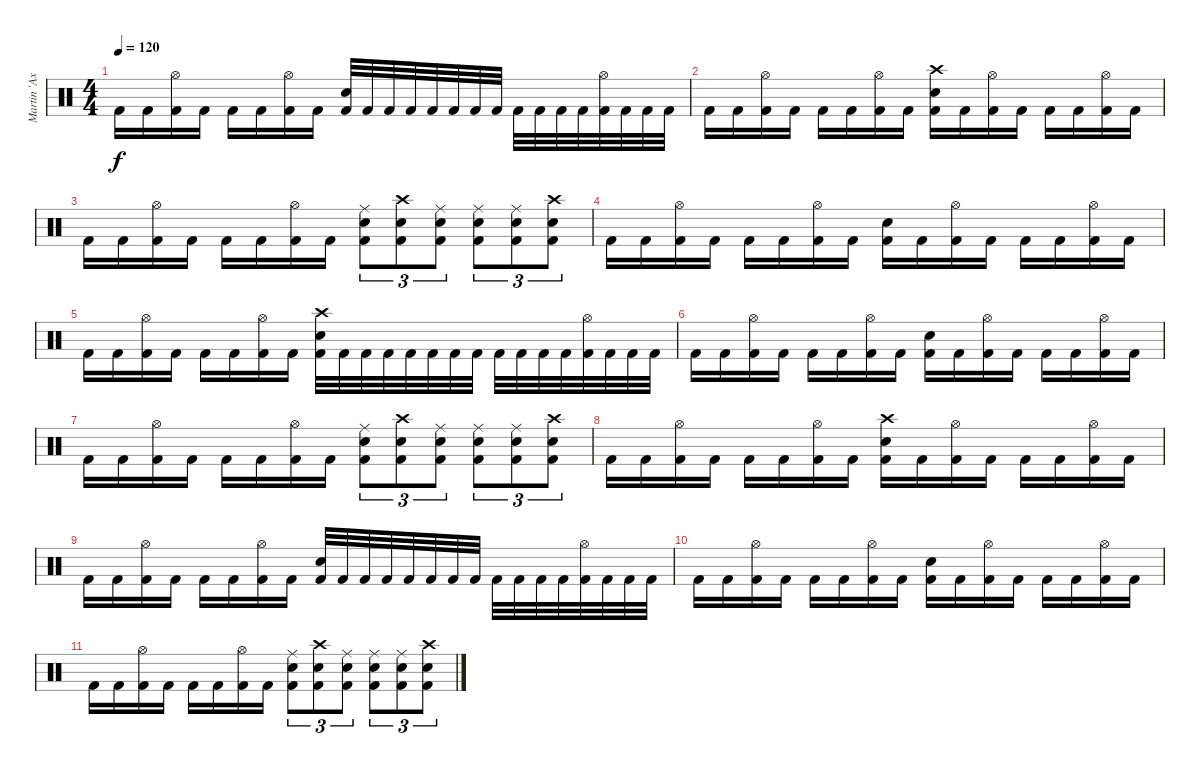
\track ("Martin 'Axe' Axenrot" "Martin 'Ax") {instrument percussion}
\staff {score}
\articulation defaults
\ts (4 4)
\tempo 120
\clef neutral
\ks c "Kick (hit) 2".16{dy f} "Kick (hit) 2".16
("Hi-Hat (open)" "Kick (hit) 2").16 "Kick (hit) 2".16 "Kick (hit) 2".16 "Kick (hit) 2".16 ("Hi-Hat (open)" "Kick (hit) 2").16 "Kick (hit) 2".16 ("Snare (hit) 2" "Kick (hit) 2").32 "Kick (hit) 2".32 "Kick (hit) 2".32 "Kick (hit) 2".32 "Kick (hit) 2".32 "Kick (hit) 2".32 "Kick (hit) 2".32 "Kick (hit) 2".32 "Kick (hit) 2".32 "Kick (hit) 2".32 "Kick (hit) 2".32 "Kick (hit) 2".32 ("Hi-Hat (open)" "Kick (hit) 2").32 "Kick (hit) 2".32 "Kick (hit) 2".32 "Kick (hit) 2".32 |
"Kick (hit) 2".16 "Kick (hit) 2".16 ("Hi-Hat (open)" "Kick (hit) 2").16 "Kick (hit) 2".16 "Kick (hit) 2".16 "Kick (hit) 2".16 ("Hi-Hat (open)" "Kick (hit) 2").16 "Kick (hit) 2".16 ("Crash high (hit)" "Snare (hit) 2" "Kick (hit) 2").16 "Kick (hit) 2".16 ("Hi-Hat (open)" "Kick (hit) 2").16 "Kick (hit) 2".16 "Kick (hit) 2".16 "Kick (hit) 2".16 ("Hi-Hat (open)" "Kick (hit) 2").16 "Kick (hit) 2".16 |
"Kick (hit) 2".16 "Kick (hit) 2".16 ("Hi-Hat (open)" "Kick (hit) 2").16 "Kick (hit) 2".16 "Kick (hit) 2".16 "Kick (hit) 2".16 ("Hi-Hat (open)" "Kick (hit) 2").16 "Kick (hit) 2".16 ("Ride (middle)" "Snare (hit) 2" "Kick (hit) 2").8{tu (3 2)} ("Crash high (hit)" "Snare (hit) 2" "Kick (hit) 2").8{tu (3 2)} ("Ride (middle)" "Snare (hit) 2" "Kick (hit) 2").8{tu (3 2)} ("Ride (middle)" "Snare (hit) 2" "Kick (hit) 2").8{tu (3 2)} ("Ride (middle)" "Snare (hit) 2" "Kick (hit) 2").8{tu (3 2)} ("Crash high (hit)" "Snare (hit) 2" "Kick (hit) 2").8{tu (3 2)} |
"Kick (hit) 2".16 "Kick (hit) 2".16 ("Hi-Hat (open)" "Kick (hit) 2").16 "Kick (hit) 2".16 "Kick (hit) 2".16 "Kick (hit) 2".16 ("Hi-Hat (open)" "Kick (hit) 2").16 "Kick (hit) 2".16 ("Snare (hit) 2" "Kick (hit) 2").16 "Kick (hit) 2".16 ("Hi-Hat (open)" "Kick (hit) 2").16 "Kick (hit) 2".16 "Kick (hit) 2".16 "Kick (hit) 2".16 ("Hi-Hat (open)" "Kick (hit) 2").16 "Kick (hit) 2".16 |
"Kick (hit) 2".16 "Kick (hit) 2".16 ("Hi-Hat (open)" "Kick (hit) 2").16 "Kick (hit) 2".16 "Kick (hit) 2".16 "Kick (hit) 2".16 ("Hi-Hat (open)" "Kick (hit) 2").16 "Kick (hit) 2".16 ("Crash high (hit)" "Snare (hit) 2" "Kick (hit) 2").32 "Kick (hit) 2".32 "Kick (hit) 2".32 "Kick (hit) 2".32 "Kick (hit) 2".32 "Kick (hit) 2".32 "Kick (hit) 2".32 "Kick (hit) 2".32 "Kick (hit) 2".32 "Kick (hit) 2".32 "Kick (hit) 2".32 "Kick (hit) 2".32 ("Hi-Hat (open)" "Kick (hit) 2").32 "Kick (hit) 2".32 "Kick (hit) 2".32 "Kick (hit) 2".32 |
"Kick (hit) 2".16 "Kick (hit) 2".16 ("Hi-Hat (open)" "Kick (hit) 2").16 "Kick (hit) 2".16 "Kick (hit) 2".16 "Kick (hit) 2".16 ("Hi-Hat (open)" "Kick (hit) 2").16 "Kick (hit) 2".16 ("Snare (hit) 2" "Kick (hit) 2").16 "Kick (hit) 2".16 ("Hi-Hat (open)" "Kick (hit) 2").16 "Kick (hit) 2".16 "Kick (hit) 2".16 "Kick (hit) 2".16 ("Hi-Hat (open)" "Kick (hit) 2").16 "Kick (hit) 2".16 |
"Kick (hit) 2".16 "Kick (hit) 2".16 ("Hi-Hat (open)" "Kick (hit) 2").16 "Kick (hit) 2".16 "Kick (hit) 2".16 "Kick (hit) 2".16 ("Hi-Hat (open)" "Kick (hit) 2").16 "Kick (hit) 2".16 ("Snare (hit) 2" "Ride (middle)" "Kick (hit) 2").8{tu (3 2)} ("Snare (hit) 2" "Crash high (hit)" "Kick (hit) 2").8{tu (3 2)} ("Snare (hit) 2" "Ride (middle)" "Kick (hit) 2").8{tu (3 2)} ("Snare (hit) 2" "Ride (middle)" "Kick (hit) 2").8{tu (3 2)} ("Snare (hit) 2" "Ride (middle)" "Kick (hit) 2").8{tu (3 2)} ("Snare (hit) 2" "Crash high (hit)" "Kick (hit) 2").8{tu (3 2)} |
"Kick (hit) 2".16 "Kick (hit) 2".16 ("Hi-Hat (open)" "Kick (hit) 2").16 "Kick (hit) 2".16 "Kick (hit) 2".16 "Kick (hit) 2".16 ("Hi-Hat (open)" "Kick (hit) 2").16 "Kick (hit) 2".16 ("Crash high (hit)" "Snare (hit) 2" "Kick (hit) 2").16 "Kick (hit) 2".16 ("Hi-Hat (open)" "Kick (hit) 2").16 "Kick (hit) 2".16 "Kick (hit) 2".16 "Kick (hit) 2".16 ("Hi-Hat (open)" "Kick (hit) 2").16 "Kick (hit) 2".16 |
"Kick (hit) 2".16 "Kick (hit) 2".16 ("Hi-Hat (open)" "Kick (hit) 2").16 "Kick (hit) 2".16 "Kick (hit) 2".16 "Kick (hit) 2".16 ("Hi-Hat (open)" "Kick (hit) 2").16 "Kick (hit) 2".16 ("Snare (hit) 2" "Kick (hit) 2").32 "Kick (hit) 2".32 "Kick (hit) 2".32 "Kick (hit) 2".32 "Kick (hit) 2".32 "Kick (hit) 2".32 "Kick (hit) 2".32 "Kick (hit) 2".32 "Kick (hit) 2".32 "Kick (hit) 2".32 "Kick (hit) 2".32 "Kick (hit) 2".32 ("Hi-Hat (open)" "Kick (hit) 2").32 "Kick (hit) 2".32 "Kick (hit) 2".32 "Kick (hit) 2".32 |
"Kick (hit) 2".16 "Kick (hit) 2".16 ("Hi-Hat (open)" "Kick (hit) 2").16 "Kick (hit) 2".16 "Kick (hit) 2".16 "Kick (hit) 2".16 ("Hi-Hat (open)" "Kick (hit) 2").16 "Kick (hit) 2".16 ("Snare (hit) 2" "Kick (hit) 2").16 "Kick (hit) 2".16 ("Hi-Hat (open)" "Kick (hit) 2").16 "Kick (hit) 2".16 "Kick (hit) 2".16 "Kick (hit) 2".16 ("Hi-Hat (open)" "Kick (hit) 2").16 "Kick (hit) 2".16 |
"Kick (hit) 2".16 "Kick (hit) 2".16 ("Hi-Hat (open)" "Kick (hit) 2").16 "Kick (hit) 2".16 "Kick (hit) 2".16 "Kick (hit) 2".16 ("Hi-Hat (open)" "Kick (hit) 2").16 "Kick (hit) 2".16 ("Ride (middle)" "Snare (hit) 2" "Kick (hit) 2").8{tu (3 2)} ("Crash high (hit)" "Snare (hit) 2" "Kick (hit) 2").8{tu (3 2)} ("Ride (middle)" "Snare (hit) 2" "Kick (hit) 2").8{tu (3 2)} ("Ride (middle)" "Snare (hit) 2" "Kick (hit) 2").8{tu (3 2)} ("Ride (middle)" "Snare (hit) 2" "Kick (hit) 2").8{tu (3 2)} ("Crash high (hit)" "Snare (hit) 2" "Kick (hit) 2").8{tu (3 2)}
